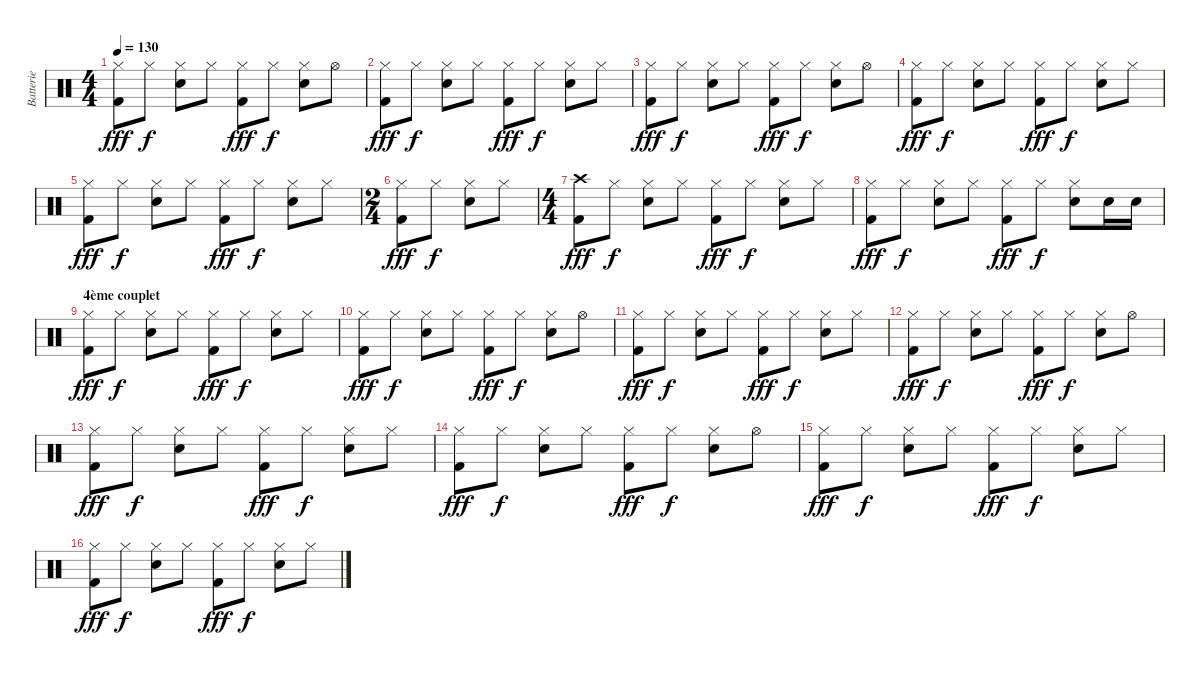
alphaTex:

\track ("Batterie" "Batterie") {instrument percussion}
\staff {score}
\articulation defaults
\ts (4 4)
\tempo 130
\clef neutral
\ks c
("Hi-Hat (closed)" "Kick (hit) 2").8{dy fff} "Hi-Hat (closed)".8{dy f} ("Hi-Hat (closed)" "Snare (hit) 2").8 "Hi-Hat (closed)".8 ("Hi-Hat (closed)" "Kick (hit) 2").8{dy fff} "Hi-Hat (closed)".8{dy f} ("Hi-Hat (closed)" "Snare (hit) 2").8 "Hi-Hat (open)".8 |
("Hi-Hat (closed)" "Kick (hit) 2").8{dy fff} "Hi-Hat (closed)".8{dy f} ("Hi-Hat (closed)" "Snare (hit) 2").8 "Hi-Hat (closed)".8 ("Hi-Hat (closed)" "Kick (hit) 2").8{dy fff} "Hi-Hat (closed)".8{dy f} ("Hi-Hat (closed)" "Snare (hit) 2").8 "Hi-Hat (closed)".8 |
("Hi-Hat (closed)" "Kick (hit) 2").8{dy fff} "Hi-Hat (closed)".8{dy f} ("Hi-Hat (closed)" "Snare (hit) 2").8 "Hi-Hat (closed)".8 ("Hi-Hat (closed)" "Kick (hit) 2").8{dy fff} "Hi-Hat (closed)".8{dy f} ("Hi-Hat (closed)" "Snare (hit) 2").8 "Hi-Hat (open)".8 |
("Hi-Hat (closed)" "Kick (hit) 2").8{dy fff} "Hi-Hat (closed)".8{dy f} ("Hi-Hat (closed)" "Snare (hit) 2").8 "Hi-Hat (closed)".8 ("Hi-Hat (closed)" "Kick (hit) 2").8{dy fff} "Hi-Hat (closed)".8{dy f} ("Hi-Hat (closed)" "Snare (hit) 2").8 "Hi-Hat (closed)".8 |
("Hi-Hat (closed)" "Kick (hit) 2").8{dy fff} "Hi-Hat (closed)".8{dy f} ("Hi-Hat (closed)" "Snare (hit) 2").8 "Hi-Hat (closed)".8 ("Hi-Hat (closed)" "Kick (hit) 2").8{dy fff} "Hi-Hat (closed)".8{dy f} ("Hi-Hat (closed)" "Snare (hit) 2").8 "Hi-Hat (closed)".8 |
\ts (2 4)
("Hi-Hat (closed)" "Kick (hit) 2").8{dy fff} "Hi-Hat (closed)".8{dy f} ("Hi-Hat (closed)" "Snare (hit) 2").8 "Hi-Hat (closed)".8 |
\ts (4 4)
("Crash high (hit)" "Kick (hit) 2").8{dy fff} "Hi-Hat (closed)".8{dy f} ("Hi-Hat (closed)" "Snare (hit) 2").8 "Hi-Hat (closed)".8 ("Hi-Hat (closed)" "Kick (hit) 2").8{dy fff} "Hi-Hat (closed)".8{dy f} ("Hi-Hat (closed)" "Snare (hit) 2").8 "Hi-Hat (closed)".8 |
("Hi-Hat (closed)" "Kick (hit) 2").8{dy fff} "Hi-Hat (closed)".8{dy f} ("Hi-Hat (closed)" "Snare (hit) 2").8 "Hi-Hat (closed)".8 ("Hi-Hat (closed)" "Kick (hit) 2").8{dy fff} "Hi-Hat (closed)".8{dy f} ("Hi-Hat (closed)" "Snare (hit) 2").8 "Snare (hit) 2".16 "Snare (hit) 2".16 |
\section ("" "4ème couplet")
("Hi-Hat (closed)" "Kick (hit) 2").8{dy fff} "Hi-Hat (closed)".8{dy f} ("Hi-Hat (closed)" "Snare (hit) 2").8 "Hi-Hat (closed)".8 ("Hi-Hat (closed)" "Kick (hit) 2").8{dy fff} "Hi-Hat (closed)".8{dy f} ("Hi-Hat (closed)" "Snare (hit) 2").8 "Hi-Hat (closed)".8 |
("Hi-Hat (closed)" "Kick (hit) 2").8{dy fff} "Hi-Hat (closed)".8{dy f} ("Hi-Hat (closed)" "Snare (hit) 2").8 "Hi-Hat (closed)".8 ("Hi-Hat (closed)" "Kick (hit) 2").8{dy fff} "Hi-Hat (closed)".8{dy f} ("Hi-Hat (closed)" "Snare (hit) 2").8 "Hi-Hat (open)".8 |
("Hi-Hat (closed)" "Kick (hit) 2").8{dy fff} "Hi-Hat (closed)".8{dy f} ("Hi-Hat (closed)" "Snare (hit) 2").8 "Hi-Hat (closed)".8 ("Hi-Hat (closed)" "Kick (hit) 2").8{dy fff} "Hi-Hat (closed)".8{dy f} ("Hi-Hat (closed)" "Snare (hit) 2").8 "Hi-Hat (closed)".8 |
("Hi-Hat (closed)" "Kick (hit) 2").8{dy fff} "Hi-Hat (closed)".8{dy f} ("Hi-Hat (closed)" "Snare (hit) 2").8 "Hi-Hat (closed)".8 ("Hi-Hat (closed)" "Kick (hit) 2").8{dy fff} "Hi-Hat (closed)".8{dy f} ("Hi-Hat (closed)" "Snare (hit) 2").8 "Hi-Hat (open)".8 |
("Hi-Hat (closed)" "Kick (hit) 2").8{dy fff} "Hi-Hat (closed)".8{dy f} ("Hi-Hat (closed)" "Snare (hit) 2").8 "Hi-Hat (closed)".8 ("Hi-Hat (closed)" "Kick (hit) 2").8{dy fff} "Hi-Hat (closed)".8{dy f} ("Hi-Hat (closed)" "Snare (hit) 2").8 "Hi-Hat (closed)".8 |
("Hi-Hat (closed)" "Kick (hit) 2").8{dy fff} "Hi-Hat (closed)".8{dy f} ("Hi-Hat (closed)" "Snare (hit) 2").8 "Hi-Hat (closed)".8 ("Hi-Hat (closed)" "Kick (hit) 2").8{dy fff} "Hi-Hat (closed)".8{dy f} ("Hi-Hat (closed)" "Snare (hit) 2").8 "Hi-Hat (open)".8 |
("Hi-Hat (closed)" "Kick (hit) 2").8{dy fff} "Hi-Hat (closed)".8{dy f} ("Hi-Hat (closed)" "Snare (hit) 2").8 "Hi-Hat (closed)".8 ("Hi-Hat (closed)" "Kick (hit) 2").8{dy fff} "Hi-Hat (closed)".8{dy f} ("Hi-Hat (closed)" "Snare (hit) 2").8 "Hi-Hat (closed)".8 |
("Hi-Hat (closed)" "Kick (hit) 2").8{dy fff} "Hi-Hat (closed)".8{dy f} ("Hi-Hat (closed)" "Snare (hit) 2").8 "Hi-Hat (closed)".8 ("Hi-Hat (closed)" "Kick (hit) 2").8{dy fff} "Hi-Hat (closed)".8{dy f} ("Hi-Hat (closed)" "Snare (hit) 2").8 "Hi-Hat (closed)".8
